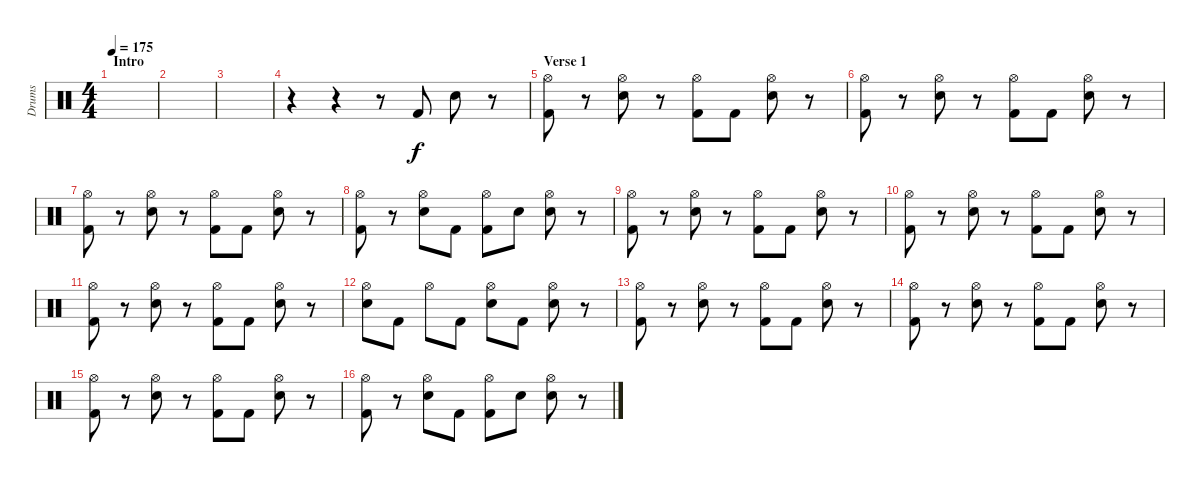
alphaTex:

\track ("Drums" "Drums") {instrument percussion}
\staff {score}
\articulation defaults
\ts (4 4)
\section ("" "Intro")
\tempo 175
\clef neutral
\ks c
|
|
|
r.4 r.4 r.8 "Kick (hit) 2".8 "Electric Snare (hit)".8 r.8 |
\section ("" "Verse 1")
("Kick (hit) 2" "Hi-Hat (open)").8 r.8 ("Electric Snare (hit)" "Hi-Hat (open)").8 r.8 ("Kick (hit) 2" "Hi-Hat (open)").8 "Kick (hit) 2".8 ("Electric Snare (hit)" "Hi-Hat (open)").8 r.8 |
("Kick (hit) 2" "Hi-Hat (open)").8 r.8 ("Electric Snare (hit)" "Hi-Hat (open)").8 r.8 ("Kick (hit) 2" "Hi-Hat (open)").8 "Kick (hit) 2".8 ("Electric Snare (hit)" "Hi-Hat (open)").8 r.8 |
("Kick (hit) 2" "Hi-Hat (open)").8 r.8 ("Electric Snare (hit)" "Hi-Hat (open)").8 r.8 ("Kick (hit) 2" "Hi-Hat (open)").8 "Kick (hit) 2".8 ("Electric Snare (hit)" "Hi-Hat (open)").8 r.8 |
("Kick (hit) 2" "Hi-Hat (open)").8 r.8 ("Electric Snare (hit)" "Hi-Hat (open)").8 "Kick (hit) 2".8 ("Kick (hit) 2" "Hi-Hat (open)").8 "Electric Snare (hit)".8 ("Electric Snare (hit)" "Hi-Hat (open)").8 r.8 |
("Kick (hit) 2" "Hi-Hat (open)").8 r.8 ("Electric Snare (hit)" "Hi-Hat (open)").8 r.8 ("Kick (hit) 2" "Hi-Hat (open)").8 "Kick (hit) 2".8 ("Electric Snare (hit)" "Hi-Hat (open)").8 r.8 |
("Kick (hit) 2" "Hi-Hat (open)").8 r.8 ("Electric Snare (hit)" "Hi-Hat (open)").8 r.8 ("Kick (hit) 2" "Hi-Hat (open)").8 "Kick (hit) 2".8 ("Electric Snare (hit)" "Hi-Hat (open)").8 r.8 |
("Kick (hit) 2" "Hi-Hat (open)").8 r.8 ("Electric Snare (hit)" "Hi-Hat (open)").8 r.8 ("Kick (hit) 2" "Hi-Hat (open)").8 "Kick (hit) 2".8 ("Electric Snare (hit)" "Hi-Hat (open)").8 r.8 |
("Electric Snare (hit)" "Hi-Hat (open)").8 "Kick (hit) 2".8 "Hi-Hat (open)".8 "Kick (hit) 2".8 ("Electric Snare (hit)" "Hi-Hat (open)").8 "Kick (hit) 2".8 ("Electric Snare (hit)" "Hi-Hat (open)").8 r.8 |
("Kick (hit) 2" "Hi-Hat (open)").8 r.8 ("Electric Snare (hit)" "Hi-Hat (open)").8 r.8 ("Kick (hit) 2" "Hi-Hat (open)").8 "Kick (hit) 2".8 ("Electric Snare (hit)" "Hi-Hat (open)").8 r.8 |
("Kick (hit) 2" "Hi-Hat (open)").8 r.8 ("Electric Snare (hit)" "Hi-Hat (open)").8 r.8 ("Kick (hit) 2" "Hi-Hat (open)").8 "Kick (hit) 2".8 ("Electric Snare (hit)" "Hi-Hat (open)").8 r.8 |
("Kick (hit) 2" "Hi-Hat (open)").8 r.8 ("Electric Snare (hit)" "Hi-Hat (open)").8 r.8 ("Kick (hit) 2" "Hi-Hat (open)").8 "Kick (hit) 2".8 ("Electric Snare (hit)" "Hi-Hat (open)").8 r.8 |
("Kick (hit) 2" "Hi-Hat (open)").8 r.8 ("Electric Snare (hit)" "Hi-Hat (open)").8 "Kick (hit) 2".8 ("Kick (hit) 2" "Hi-Hat (open)").8 "Electric Snare (hit)".8 ("Electric Snare (hit)" "Hi-Hat (open)").8 r.8
